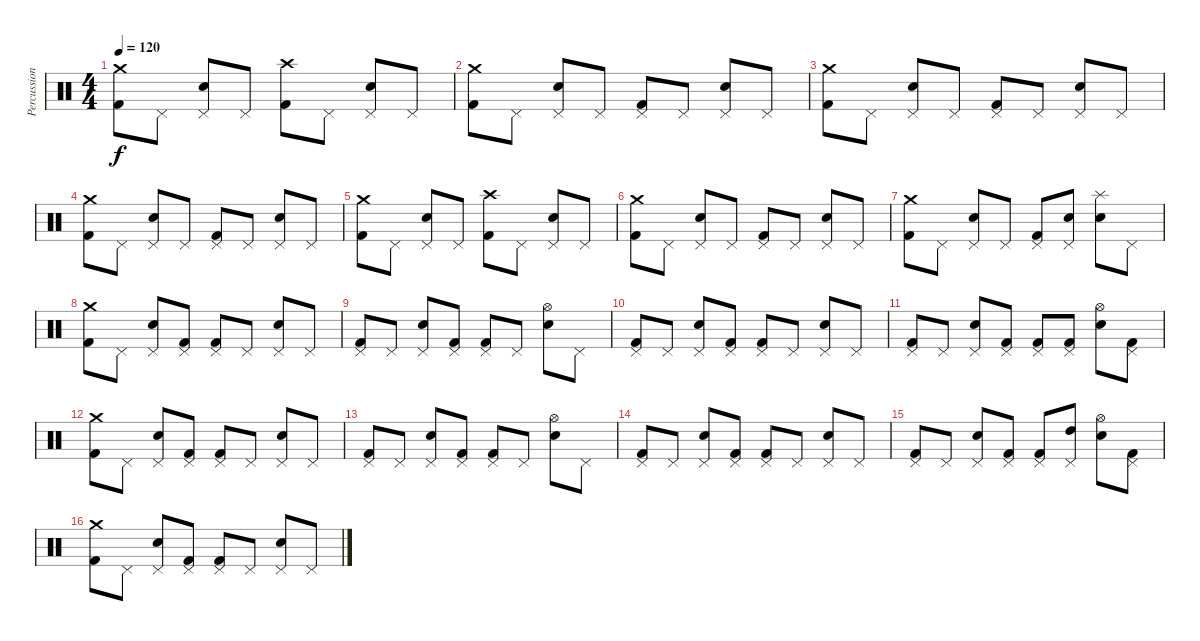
\track ("Percussions" "Percussion") {instrument percussion}
\staff {score}
\articulation defaults
\ts (4 4)
\tempo 120
\clef neutral
\ks c
("Crash medium (hit)" "Kick (hit) 2").8{dy f} "Pedal Hi-Hat (hit)".8 ("Pedal Hi-Hat (hit)" "Snare (hit) 2").8 "Pedal Hi-Hat (hit)".8 ("Crash high (hit)" "Kick (hit) 2").8 "Pedal Hi-Hat (hit)".8 ("Pedal Hi-Hat (hit)" "Snare (hit) 2").8 "Pedal Hi-Hat (hit)".8 |
("Crash medium (hit)" "Kick (hit) 2").8 "Pedal Hi-Hat (hit)".8 ("Pedal Hi-Hat (hit)" "Snare (hit) 2").8 "Pedal Hi-Hat (hit)".8 ("Pedal Hi-Hat (hit)" "Kick (hit) 2").8 "Pedal Hi-Hat (hit)".8 ("Pedal Hi-Hat (hit)" "Snare (hit) 2").8 "Pedal Hi-Hat (hit)".8 |
("Crash medium (hit)" "Kick (hit) 2").8 "Pedal Hi-Hat (hit)".8 ("Pedal Hi-Hat (hit)" "Snare (hit) 2").8 "Pedal Hi-Hat (hit)".8 ("Pedal Hi-Hat (hit)" "Kick (hit) 2").8 "Pedal Hi-Hat (hit)".8 ("Pedal Hi-Hat (hit)" "Snare (hit) 2").8 "Pedal Hi-Hat (hit)".8 |
("Crash medium (hit)" "Kick (hit) 2").8 "Pedal Hi-Hat (hit)".8 ("Pedal Hi-Hat (hit)" "Snare (hit) 2").8 "Pedal Hi-Hat (hit)".8 ("Pedal Hi-Hat (hit)" "Kick (hit) 2").8 "Pedal Hi-Hat (hit)".8 ("Pedal Hi-Hat (hit)" "Snare (hit) 2").8 "Pedal Hi-Hat (hit)".8 |
("Crash medium (hit)" "Kick (hit) 2").8 "Pedal Hi-Hat (hit)".8 ("Pedal Hi-Hat (hit)" "Snare (hit) 2").8 "Pedal Hi-Hat (hit)".8 ("Crash high (hit)" "Kick (hit) 2").8 "Pedal Hi-Hat (hit)".8 ("Pedal Hi-Hat (hit)" "Snare (hit) 2").8 "Pedal Hi-Hat (hit)".8 |
("Crash medium (hit)" "Kick (hit) 2").8 "Pedal Hi-Hat (hit)".8 ("Pedal Hi-Hat (hit)" "Snare (hit) 2").8 "Pedal Hi-Hat (hit)".8 ("Pedal Hi-Hat (hit)" "Kick (hit) 2").8 "Pedal Hi-Hat (hit)".8 ("Pedal Hi-Hat (hit)" "Snare (hit) 2").8 "Pedal Hi-Hat (hit)".8 |
("Crash medium (hit)" "Kick (hit) 2").8 "Pedal Hi-Hat (hit)".8 ("Pedal Hi-Hat (hit)" "Snare (hit) 2").8 "Pedal Hi-Hat (hit)".8 ("Pedal Hi-Hat (hit)" "Kick (hit) 2").8 ("Pedal Hi-Hat (hit)" "Snare (hit) 2").8 ("Splash (hit)" "Snare (hit) 2").8 "Pedal Hi-Hat (hit)".8 |
("Crash medium (hit)" "Kick (hit) 2").8 "Pedal Hi-Hat (hit)".8 ("Pedal Hi-Hat (hit)" "Snare (hit) 2").8 ("Pedal Hi-Hat (hit)" "Kick (hit) 2").8 ("Pedal Hi-Hat (hit)" "Kick (hit) 2").8 "Pedal Hi-Hat (hit)".8 ("Pedal Hi-Hat (hit)" "Snare (hit) 2").8 "Pedal Hi-Hat (hit)".8 |
("Pedal Hi-Hat (hit)" "Kick (hit) 2").8 "Pedal Hi-Hat (hit)".8 ("Pedal Hi-Hat (hit)" "Snare (hit) 2").8 ("Pedal Hi-Hat (hit)" "Kick (hit) 2").8 ("Pedal Hi-Hat (hit)" "Kick (hit) 2").8 "Pedal Hi-Hat (hit)".8 ("Hi-Hat (open)" "Snare (hit) 2").8 "Pedal Hi-Hat (hit)".8 |
("Pedal Hi-Hat (hit)" "Kick (hit) 2").8 "Pedal Hi-Hat (hit)".8 ("Pedal Hi-Hat (hit)" "Snare (hit) 2").8 ("Pedal Hi-Hat (hit)" "Kick (hit) 2").8 ("Pedal Hi-Hat (hit)" "Kick (hit) 2").8 "Pedal Hi-Hat (hit)".8 ("Pedal Hi-Hat (hit)" "Snare (hit) 2").8 "Pedal Hi-Hat (hit)".8 |
("Pedal Hi-Hat (hit)" "Kick (hit) 2").8 "Pedal Hi-Hat (hit)".8 ("Pedal Hi-Hat (hit)" "Snare (hit) 2").8 ("Pedal Hi-Hat (hit)" "Kick (hit) 2").8 ("Pedal Hi-Hat (hit)" "Kick (hit) 2").8 ("Pedal Hi-Hat (hit)" "Kick (hit) 2").8 ("Hi-Hat (open)" "Snare (hit) 2").8 ("Pedal Hi-Hat (hit)" "Kick (hit) 2").8 |
("Crash medium (hit)" "Kick (hit) 2").8 "Pedal Hi-Hat (hit)".8 ("Pedal Hi-Hat (hit)" "Snare (hit) 2").8 ("Pedal Hi-Hat (hit)" "Kick (hit) 2").8 ("Pedal Hi-Hat (hit)" "Kick (hit) 2").8 "Pedal Hi-Hat (hit)".8 ("Pedal Hi-Hat (hit)" "Snare (hit) 2").8 "Pedal Hi-Hat (hit)".8 |
("Pedal Hi-Hat (hit)" "Kick (hit) 2").8 "Pedal Hi-Hat (hit)".8 ("Pedal Hi-Hat (hit)" "Snare (hit) 2").8 ("Pedal Hi-Hat (hit)" "Kick (hit) 2").8 ("Pedal Hi-Hat (hit)" "Kick (hit) 2").8 "Pedal Hi-Hat (hit)".8 ("Hi-Hat (open)" "Snare (hit) 2").8 "Pedal Hi-Hat (hit)".8 |
("Pedal Hi-Hat (hit)" "Kick (hit) 2").8 "Pedal Hi-Hat (hit)".8 ("Pedal Hi-Hat (hit)" "Snare (hit) 2").8 ("Pedal Hi-Hat (hit)" "Kick (hit) 2").8 ("Pedal Hi-Hat (hit)" "Kick (hit) 2").8 "Pedal Hi-Hat (hit)".8 ("Pedal Hi-Hat (hit)" "Snare (hit) 2").8 "Pedal Hi-Hat (hit)".8 |
("Pedal Hi-Hat (hit)" "Kick (hit) 2").8 "Pedal Hi-Hat (hit)".8 ("Pedal Hi-Hat (hit)" "Snare (hit) 2").8 ("Pedal Hi-Hat (hit)" "Kick (hit) 2").8 ("Pedal Hi-Hat (hit)" "Kick (hit) 2").8 ("Pedal Hi-Hat (hit)" "High Tom (hit)").8 ("Hi-Hat (open)" "Snare (hit) 2").8 ("Pedal Hi-Hat (hit)" "Kick (hit) 2").8 |
("Crash medium (hit)" "Kick (hit) 2").8 "Pedal Hi-Hat (hit)".8 ("Pedal Hi-Hat (hit)" "Snare (hit) 2").8 ("Pedal Hi-Hat (hit)" "Kick (hit) 2").8 ("Pedal Hi-Hat (hit)" "Kick (hit) 2").8 "Pedal Hi-Hat (hit)".8 ("Pedal Hi-Hat (hit)" "Snare (hit) 2").8 "Pedal Hi-Hat (hit)".8
